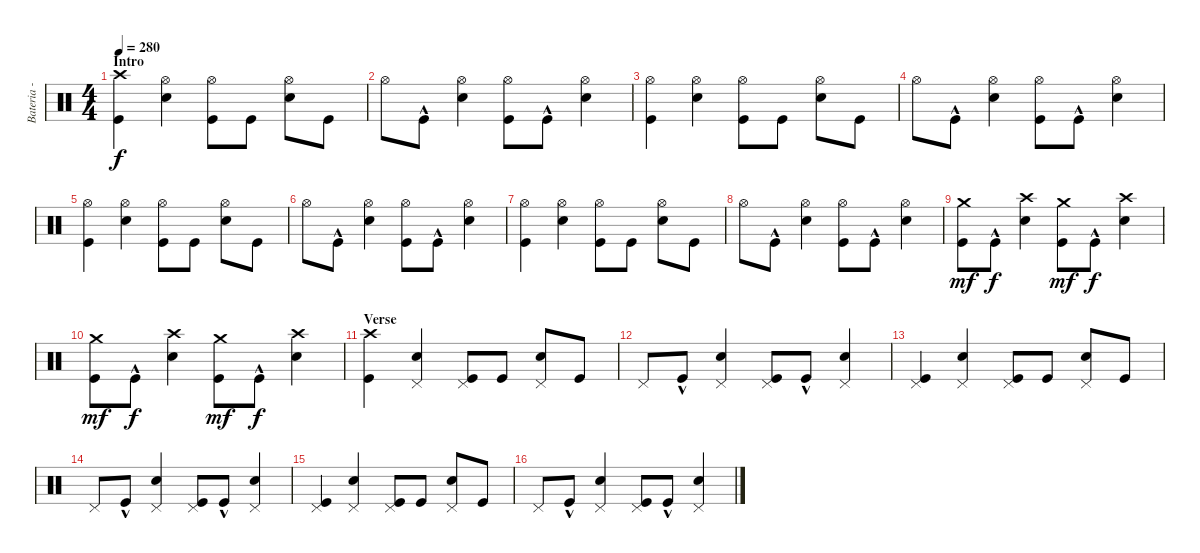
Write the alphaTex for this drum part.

\track ("Bateria - Larzon" "Bateria - ") {instrument percussion}
\staff {score}
\articulation defaults
\ts (4 4)
\section ("" "Intro")
\tempo 280
\clef neutral
\ks c
("Kick (hit)" "Crash high (hit)").4{dy f} ("Snare (hit) 2" "Hi-Hat (open)").4 ("Kick (hit)" "Hi-Hat (open)").8 "Kick (hit)".8 ("Snare (hit) 2" "Hi-Hat (open)").8 "Kick (hit)".8 |
"Hi-Hat (open)".8 "Kick (hit)"{hac}.8 ("Snare (hit) 2" "Hi-Hat (open)").4 ("Kick (hit)" "Hi-Hat (open)").8 "Kick (hit)"{hac}.8 ("Snare (hit) 2" "Hi-Hat (open)").4 |
("Kick (hit)" "Hi-Hat (open)").4 ("Snare (hit) 2" "Hi-Hat (open)").4 ("Kick (hit)" "Hi-Hat (open)").8 "Kick (hit)".8 ("Snare (hit) 2" "Hi-Hat (open)").8 "Kick (hit)".8 |
"Hi-Hat (open)".8 "Kick (hit)"{hac}.8 ("Snare (hit) 2" "Hi-Hat (open)").4 ("Kick (hit)" "Hi-Hat (open)").8 "Kick (hit)"{hac}.8 ("Snare (hit) 2" "Hi-Hat (open)").4 |
("Kick (hit)" "Hi-Hat (open)").4 ("Snare (hit) 2" "Hi-Hat (open)").4 ("Kick (hit)" "Hi-Hat (open)").8 "Kick (hit)".8 ("Snare (hit) 2" "Hi-Hat (open)").8 "Kick (hit)".8 |
"Hi-Hat (open)".8 "Kick (hit)"{hac}.8 ("Snare (hit) 2" "Hi-Hat (open)").4 ("Kick (hit)" "Hi-Hat (open)").8 "Kick (hit)"{hac}.8 ("Snare (hit) 2" "Hi-Hat (open)").4 |
("Kick (hit)" "Hi-Hat (open)").4 ("Snare (hit) 2" "Hi-Hat (open)").4 ("Kick (hit)" "Hi-Hat (open)").8 "Kick (hit)".8 ("Snare (hit) 2" "Hi-Hat (open)").8 "Kick (hit)".8 |
"Hi-Hat (open)".8 "Kick (hit)"{hac}.8 ("Snare (hit) 2" "Hi-Hat (open)").4 ("Kick (hit)" "Hi-Hat (open)").8 "Kick (hit)"{hac}.8 ("Snare (hit) 2" "Hi-Hat (open)").4 |
("Kick (hit)" "Crash medium (hit)").8{dy mf} "Kick (hit)"{hac}.8{dy f} ("Snare (hit) 2" "Crash high (hit)").4 ("Kick (hit)" "Crash medium (hit)").8{dy mf} "Kick (hit)"{hac}.8{dy f} ("Snare (hit) 2" "Crash high (hit)").4 |
("Kick (hit)" "Crash medium (hit)").8{dy mf} "Kick (hit)"{hac}.8{dy f} ("Snare (hit) 2" "Crash high (hit)").4 ("Kick (hit)" "Crash medium (hit)").8{dy mf} "Kick (hit)"{hac}.8{dy f} ("Snare (hit) 2" "Crash high (hit)").4 |
\section ("" "Verse")
("Kick (hit)" "Crash high (hit)").4 ("Snare (hit) 2" "Pedal Hi-Hat (hit)").4 ("Kick (hit)" "Pedal Hi-Hat (hit)").8 "Kick (hit)".8 ("Snare (hit) 2" "Pedal Hi-Hat (hit)").8 "Kick (hit)".8 |
"Pedal Hi-Hat (hit)".8 "Kick (hit)"{hac}.8 ("Snare (hit) 2" "Pedal Hi-Hat (hit)").4 ("Kick (hit)" "Pedal Hi-Hat (hit)").8 "Kick (hit)"{hac}.8 ("Snare (hit) 2" "Pedal Hi-Hat (hit)").4 |
("Kick (hit)" "Pedal Hi-Hat (hit)").4 ("Snare (hit) 2" "Pedal Hi-Hat (hit)").4 ("Kick (hit)" "Pedal Hi-Hat (hit)").8 "Kick (hit)".8 ("Snare (hit) 2" "Pedal Hi-Hat (hit)").8 "Kick (hit)".8 |
"Pedal Hi-Hat (hit)".8 "Kick (hit)"{hac}.8 ("Snare (hit) 2" "Pedal Hi-Hat (hit)").4 ("Kick (hit)" "Pedal Hi-Hat (hit)").8 "Kick (hit)"{hac}.8 ("Snare (hit) 2" "Pedal Hi-Hat (hit)").4 |
("Kick (hit)" "Pedal Hi-Hat (hit)").4 ("Snare (hit) 2" "Pedal Hi-Hat (hit)").4 ("Kick (hit)" "Pedal Hi-Hat (hit)").8 "Kick (hit)".8 ("Snare (hit) 2" "Pedal Hi-Hat (hit)").8 "Kick (hit)".8 |
"Pedal Hi-Hat (hit)".8 "Kick (hit)"{hac}.8 ("Snare (hit) 2" "Pedal Hi-Hat (hit)").4 ("Kick (hit)" "Pedal Hi-Hat (hit)").8 "Kick (hit)"{hac}.8 ("Snare (hit) 2" "Pedal Hi-Hat (hit)").4
